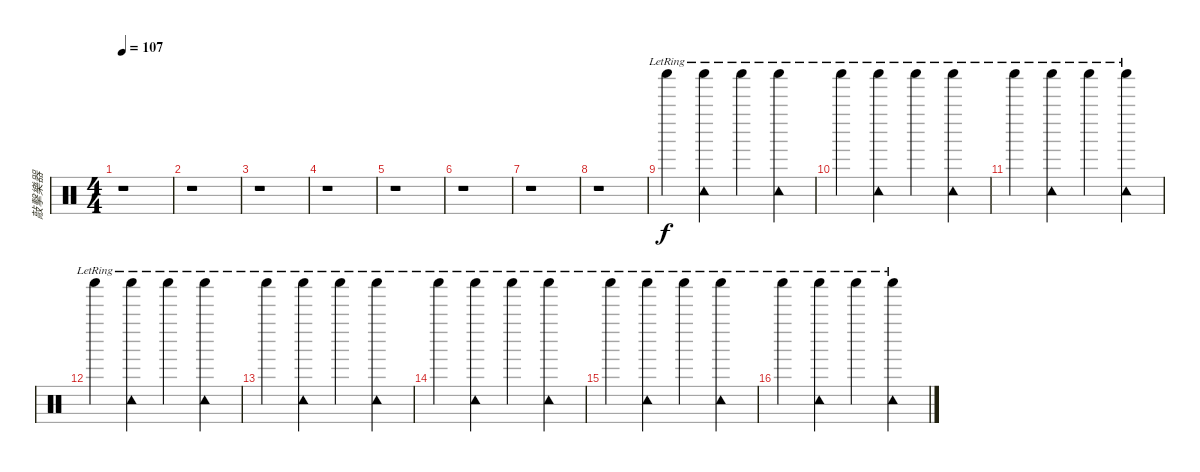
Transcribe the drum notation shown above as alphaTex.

\track ("敲擊樂器" "敲擊樂器") {instrument percussion}
\staff {score}
\articulation defaults
\ts (4 4)
\tempo 107
\clef neutral
\ks c
r.1{dy f} |
r.1 |
r.1 |
r.1 |
r.1 |
r.1 |
r.1 |
r.1 |
"Shaker (hit)"{lr}.4 ("Tambourine (hit)"{lr} "Shaker (hit)"{lr}).4 "Shaker (hit)"{lr}.4 ("Tambourine (hit)"{lr} "Shaker (hit)"{lr}).4 |
"Shaker (hit)"{lr}.4 ("Tambourine (hit)"{lr} "Shaker (hit)"{lr}).4 "Shaker (hit)"{lr}.4 ("Tambourine (hit)"{lr} "Shaker (hit)"{lr}).4 |
"Shaker (hit)"{lr}.4 ("Tambourine (hit)"{lr} "Shaker (hit)"{lr}).4 "Shaker (hit)"{lr}.4 ("Tambourine (hit)"{lr} "Shaker (hit)"{lr}).4 |
"Shaker (hit)"{lr}.4 ("Tambourine (hit)"{lr} "Shaker (hit)"{lr}).4 "Shaker (hit)"{lr}.4 ("Tambourine (hit)"{lr} "Shaker (hit)"{lr}).4 |
"Shaker (hit)"{lr}.4 ("Tambourine (hit)"{lr} "Shaker (hit)"{lr}).4 "Shaker (hit)"{lr}.4 ("Tambourine (hit)"{lr} "Shaker (hit)"{lr}).4 |
"Shaker (hit)"{lr}.4 ("Tambourine (hit)"{lr} "Shaker (hit)"{lr}).4 "Shaker (hit)"{lr}.4 ("Tambourine (hit)"{lr} "Shaker (hit)"{lr}).4 |
"Shaker (hit)"{lr}.4 ("Tambourine (hit)"{lr} "Shaker (hit)"{lr}).4 "Shaker (hit)"{lr}.4 ("Tambourine (hit)"{lr} "Shaker (hit)"{lr}).4 |
"Shaker (hit)"{lr}.4 ("Tambourine (hit)"{lr} "Shaker (hit)"{lr}).4 "Shaker (hit)"{lr}.4 ("Tambourine (hit)"{lr} "Shaker (hit)"{lr}).4
